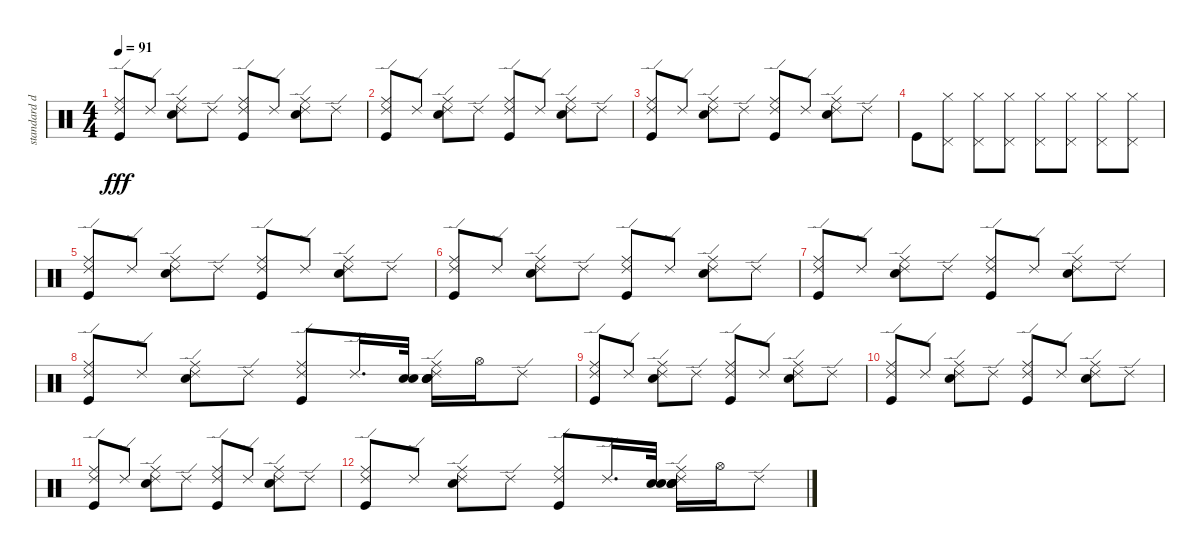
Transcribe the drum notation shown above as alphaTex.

\track ("standard drums" "standard d") {instrument percussion}
\staff {score}
\articulation defaults
\ts (4 4)
\tempo 91
\clef neutral
\ks c
("Ride (edge) 2" "Ride (middle)" "Kick (hit)").8{dy fff} "Ride (edge) 2".8 ("Ride (edge) 2" "Ride (middle)" "Snare (hit) 2").8 "Ride (edge) 2".8 ("Ride (edge) 2" "Ride (middle)" "Kick (hit)").8 "Ride (edge) 2".8 ("Ride (edge) 2" "Ride (middle)" "Snare (hit) 2").8 "Ride (edge) 2".8 |
("Ride (middle)" "Ride (edge) 2" "Kick (hit)").8 "Ride (edge) 2".8 ("Ride (edge) 2" "Ride (middle)" "Snare (hit) 2").8 "Ride (edge) 2".8 ("Ride (edge) 2" "Ride (middle)" "Kick (hit)").8 "Ride (edge) 2".8 ("Ride (middle)" "Ride (edge) 2" "Snare (hit) 2").8 "Ride (edge) 2".8 |
("Ride (edge) 2" "Ride (middle)" "Kick (hit)").8 "Ride (edge) 2".8 ("Ride (edge) 2" "Ride (middle)" "Snare (hit) 2").8 "Ride (edge) 2".8 ("Ride (edge) 2" "Ride (middle)" "Kick (hit)").8 "Ride (edge) 2".8 ("Ride (edge) 2" "Ride (middle)" "Snare (hit) 2").8 "Ride (edge) 2".8 |
"Kick (hit)".8 ("Pedal Hi-Hat (hit)" "Hi-Hat (closed)").8 ("Hi-Hat (closed)" "Pedal Hi-Hat (hit)").8 ("Hi-Hat (closed)" "Pedal Hi-Hat (hit)").8 ("Hi-Hat (closed)" "Pedal Hi-Hat (hit)").8 ("Pedal Hi-Hat (hit)" "Hi-Hat (closed)").8 ("Hi-Hat (closed)" "Pedal Hi-Hat (hit)").8 ("Hi-Hat (closed)" "Pedal Hi-Hat (hit)").8 |
("Ride (edge) 2" "Ride (middle)" "Kick (hit)").8 "Ride (edge) 2".8 ("Ride (edge) 2" "Ride (middle)" "Snare (hit) 2").8 "Ride (edge) 2".8 ("Ride (edge) 2" "Ride (middle)" "Kick (hit)").8 "Ride (edge) 2".8 ("Ride (edge) 2" "Ride (middle)" "Snare (hit) 2").8 "Ride (edge) 2".8 |
("Ride (middle)" "Ride (edge) 2" "Kick (hit)").8 "Ride (edge) 2".8 ("Ride (edge) 2" "Ride (middle)" "Snare (hit) 2").8 "Ride (edge) 2".8 ("Ride (edge) 2" "Ride (middle)" "Kick (hit)").8 "Ride (edge) 2".8 ("Ride (middle)" "Ride (edge) 2" "Snare (hit) 2").8 "Ride (edge) 2".8 |
("Ride (edge) 2" "Ride (middle)" "Kick (hit)").8 "Ride (edge) 2".8 ("Ride (edge) 2" "Ride (middle)" "Snare (hit) 2").8 "Ride (edge) 2".8 ("Ride (edge) 2" "Ride (middle)" "Kick (hit)").8 "Ride (edge) 2".8 ("Ride (edge) 2" "Ride (middle)" "Snare (hit) 2").8 "Ride (edge) 2".8 |
("Ride (middle)" "Ride (edge) 2" "Kick (hit)").8 "Ride (edge) 2".8 ("Ride (edge) 2" "Ride (middle)" "Snare (hit) 2").8 "Ride (edge) 2".8 ("Ride (edge) 2" "Ride (middle)" "Kick (hit)").8 "Ride (edge) 2".16{d} ("Electric Snare (hit)" "Snare (hit) 2").32 ("Ride (middle)" "Ride (edge) 2" "Snare (hit) 2" "Snare (hit) 2" "Electric Snare (hit)").16 "Hi-Hat (open)".16 "Ride (edge) 2".8 |
("Ride (edge) 2" "Ride (middle)" "Kick (hit)").8{volume 16} "Ride (edge) 2".8{volume 15} ("Ride (edge) 2" "Ride (middle)" "Snare (hit) 2").8{volume 15} "Ride (edge) 2".8{volume 14} ("Ride (edge) 2" "Ride (middle)" "Kick (hit)").8{volume 14} "Ride (edge) 2".8{volume 14} ("Ride (edge) 2" "Ride (middle)" "Snare (hit) 2").8{volume 13} "Ride (edge) 2".8{volume 12} |
("Ride (middle)" "Ride (edge) 2" "Kick (hit)").8{volume 12} "Ride (edge) 2".8{volume 12} ("Ride (edge) 2" "Ride (middle)" "Snare (hit) 2").8{volume 11} "Ride (edge) 2".8{volume 10} ("Ride (edge) 2" "Ride (middle)" "Kick (hit)").8{volume 10} "Ride (edge) 2".8{volume 10} ("Ride (middle)" "Ride (edge) 2" "Snare (hit) 2").8{volume 9} "Ride (edge) 2".8{volume 8} |
("Ride (edge) 2" "Ride (middle)" "Kick (hit)").8{volume 8} "Ride (edge) 2".8{volume 8} ("Ride (edge) 2" "Ride (middle)" "Snare (hit) 2").8{volume 7} "Ride (edge) 2".8{volume 6} ("Ride (edge) 2" "Ride (middle)" "Kick (hit)").8{volume 6} "Ride (edge) 2".8{volume 6} ("Ride (edge) 2" "Ride (middle)" "Snare (hit) 2").8{volume 5} "Ride (edge) 2".8{volume 4} |
("Ride (middle)" "Ride (edge) 2" "Kick (hit)").8{volume 4} "Ride (edge) 2".8{volume 4} ("Ride (edge) 2" "Ride (middle)" "Snare (hit) 2").8{volume 3} "Ride (edge) 2".8{volume 2} ("Ride (edge) 2" "Ride (middle)" "Kick (hit)").8{volume 2} "Ride (edge) 2".16{d volume 2} ("Electric Snare (hit)" "Snare (hit) 2").32{volume 1} ("Ride (middle)" "Ride (edge) 2" "Snare (hit) 2" "Snare (hit) 2" "Electric Snare (hit)").16{volume 1} "Hi-Hat (open)".16{volume 1} "Ride (edge) 2".8{volume 0}
